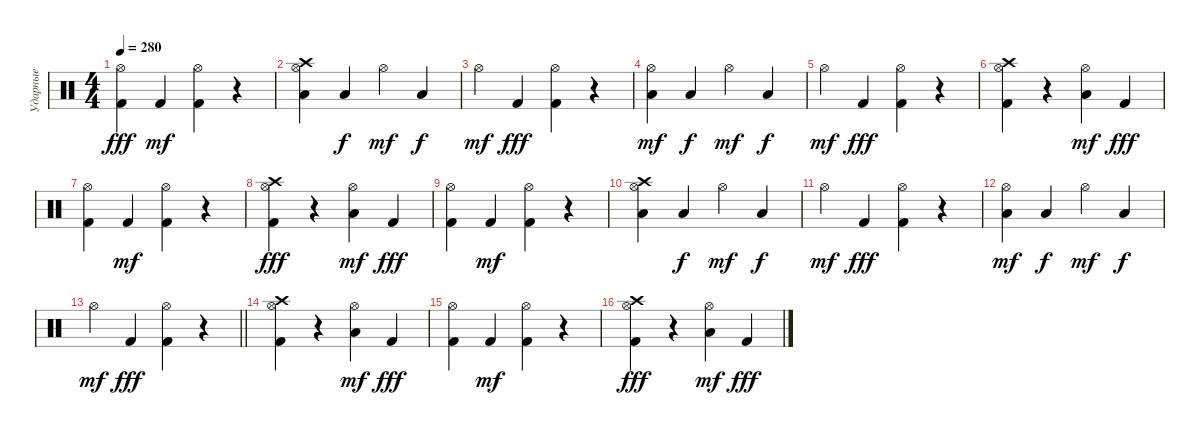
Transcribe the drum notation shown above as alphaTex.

\track ("Ударные" "Ударные") {instrument percussion}
\staff {score}
\articulation defaults
\ts (4 4)
\tempo 280
\clef neutral
\ks c
("Hi-Hat (open)" "Kick (hit) 2").4{dy fff} "Kick (hit) 2".4{dy mf} ("Hi-Hat (open)" "Kick (hit) 2").4 r.4 |
("Hi-Hat (open)" "Crash high (hit)" "Low Tom (hit)").4 "Low Tom (hit)".4{dy f} "Hi-Hat (open)".4{dy mf} "Low Tom (hit)".4{dy f} |
"Hi-Hat (open)".4{dy mf} "Kick (hit) 2".4{dy fff} ("Hi-Hat (open)" "Kick (hit) 2").4 r.4 |
("Hi-Hat (open)" "Low Tom (hit)").4{dy mf} "Low Tom (hit)".4{dy f} "Hi-Hat (open)".4{dy mf} "Low Tom (hit)".4{dy f} |
"Hi-Hat (open)".4{dy mf} "Kick (hit) 2".4{dy fff} ("Hi-Hat (open)" "Kick (hit) 2").4 r.4 |
("Hi-Hat (open)" "Crash high (hit)" "Kick (hit) 2").4 r.4 ("Hi-Hat (open)" "Low Tom (hit)").4{dy mf} "Kick (hit) 2".4{dy fff} |
("Hi-Hat (open)" "Kick (hit) 2").4 "Kick (hit) 2".4{dy mf} ("Hi-Hat (open)" "Kick (hit) 2").4 r.4 |
("Hi-Hat (open)" "Crash high (hit)" "Kick (hit) 2").4{dy fff} r.4 ("Hi-Hat (open)" "Low Tom (hit)").4{dy mf} "Kick (hit) 2".4{dy fff} |
("Hi-Hat (open)" "Kick (hit) 2").4 "Kick (hit) 2".4{dy mf} ("Hi-Hat (open)" "Kick (hit) 2").4 r.4 |
("Hi-Hat (open)" "Crash high (hit)" "Low Tom (hit)").4 "Low Tom (hit)".4{dy f} "Hi-Hat (open)".4{dy mf} "Low Tom (hit)".4{dy f} |
"Hi-Hat (open)".4{dy mf} "Kick (hit) 2".4{dy fff} ("Hi-Hat (open)" "Kick (hit) 2").4 r.4 |
("Hi-Hat (open)" "Low Tom (hit)").4{dy mf} "Low Tom (hit)".4{dy f} "Hi-Hat (open)".4{dy mf} "Low Tom (hit)".4{dy f} |
\barLineRight lightlight "Hi-Hat (open)".4{dy mf} "Kick (hit) 2".4{dy fff}
("Hi-Hat (open)" "Kick (hit) 2").4 r.4 |
("Hi-Hat (open)" "Crash high (hit)" "Kick (hit) 2").4 r.4 ("Hi-Hat (open)" "Low Tom (hit)").4{dy mf} "Kick (hit) 2".4{dy fff} |
("Hi-Hat (open)" "Kick (hit) 2").4 "Kick (hit) 2".4{dy mf} ("Hi-Hat (open)" "Kick (hit) 2").4 r.4 |
("Hi-Hat (open)" "Crash high (hit)" "Kick (hit) 2").4{dy fff} r.4 ("Hi-Hat (open)" "Low Tom (hit)").4{dy mf} "Kick (hit) 2".4{dy fff}
